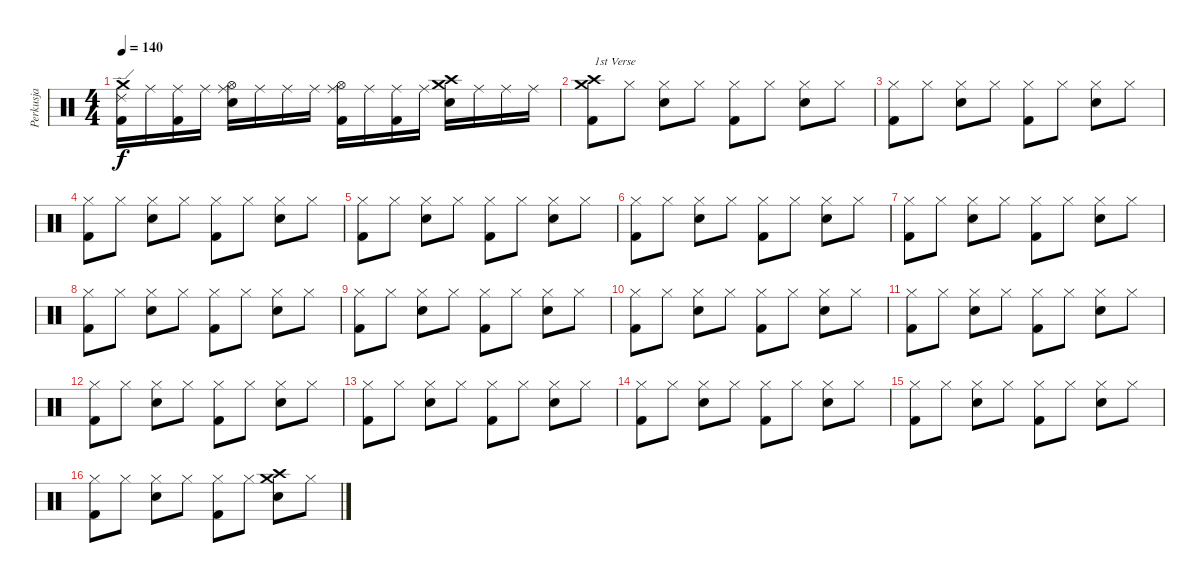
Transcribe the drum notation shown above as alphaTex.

\track ("Perkusja" "Perkusja") {instrument percussion}
\staff {score}
\articulation defaults
\ts (4 4)
\tempo 140
\clef neutral
\ks c
("Crash medium (hit)" "Ride (edge) 2" "Kick (hit) 2").16{dy f} "Ride (middle)".16 ("Ride (middle)" "Kick (hit) 2").16 "Ride (middle)".16 ("Ride (middle)" "Hi-Hat (open)" "Snare (hit) 2").16 "Ride (middle)".16 "Ride (middle)".16 "Ride (middle)".16 ("Ride (middle)" "Hi-Hat (open)" "Kick (hit) 2").16 "Ride (middle)".16 ("Ride (middle)" "Kick (hit) 2").16 "Ride (middle)".16 ("Crash high (hit)" "Crash medium (hit)" "Snare (hit) 2").16 "Ride (middle)".16 "Ride (middle)".16 "Ride (middle)".16 |
("Crash medium (hit)" "Crash high (hit)" "Kick (hit) 2").8{txt "1st Verse"} "Hi-Hat (closed)".8 ("Hi-Hat (closed)" "Snare (hit) 2").8 "Hi-Hat (closed)".8 ("Hi-Hat (closed)" "Kick (hit) 2").8 "Hi-Hat (closed)".8 ("Hi-Hat (closed)" "Snare (hit) 2").8 "Hi-Hat (closed)".8 |
("Hi-Hat (closed)" "Kick (hit) 2").8 "Hi-Hat (closed)".8 ("Hi-Hat (closed)" "Snare (hit) 2").8 "Hi-Hat (closed)".8 ("Hi-Hat (closed)" "Kick (hit) 2").8 "Hi-Hat (closed)".8 ("Hi-Hat (closed)" "Snare (hit) 2").8 "Hi-Hat (closed)".8 |
("Hi-Hat (closed)" "Kick (hit) 2").8 "Hi-Hat (closed)".8 ("Hi-Hat (closed)" "Snare (hit) 2").8 "Hi-Hat (closed)".8 ("Hi-Hat (closed)" "Kick (hit) 2").8 "Hi-Hat (closed)".8 ("Hi-Hat (closed)" "Snare (hit) 2").8 "Hi-Hat (closed)".8 |
("Hi-Hat (closed)" "Kick (hit) 2").8 "Hi-Hat (closed)".8 ("Hi-Hat (closed)" "Snare (hit) 2").8 "Hi-Hat (closed)".8 ("Hi-Hat (closed)" "Kick (hit) 2").8 "Hi-Hat (closed)".8 ("Hi-Hat (closed)" "Snare (hit) 2").8 "Hi-Hat (closed)".8 |
("Hi-Hat (closed)" "Kick (hit) 2").8 "Hi-Hat (closed)".8 ("Hi-Hat (closed)" "Snare (hit) 2").8 "Hi-Hat (closed)".8 ("Hi-Hat (closed)" "Kick (hit) 2").8 "Hi-Hat (closed)".8 ("Hi-Hat (closed)" "Snare (hit) 2").8 "Hi-Hat (closed)".8 |
("Hi-Hat (closed)" "Kick (hit) 2").8 "Hi-Hat (closed)".8 ("Hi-Hat (closed)" "Snare (hit) 2").8 "Hi-Hat (closed)".8 ("Hi-Hat (closed)" "Kick (hit) 2").8 "Hi-Hat (closed)".8 ("Hi-Hat (closed)" "Snare (hit) 2").8 "Hi-Hat (closed)".8 |
("Hi-Hat (closed)" "Kick (hit) 2").8 "Hi-Hat (closed)".8 ("Hi-Hat (closed)" "Snare (hit) 2").8 "Hi-Hat (closed)".8 ("Hi-Hat (closed)" "Kick (hit) 2").8 "Hi-Hat (closed)".8 ("Hi-Hat (closed)" "Snare (hit) 2").8 "Hi-Hat (closed)".8 |
("Hi-Hat (closed)" "Kick (hit) 2").8 "Hi-Hat (closed)".8 ("Hi-Hat (closed)" "Snare (hit) 2").8 "Hi-Hat (closed)".8 ("Hi-Hat (closed)" "Kick (hit) 2").8 "Hi-Hat (closed)".8 ("Hi-Hat (closed)" "Snare (hit) 2").8 "Hi-Hat (closed)".8 |
("Hi-Hat (closed)" "Kick (hit) 2").8 "Hi-Hat (closed)".8 ("Hi-Hat (closed)" "Snare (hit) 2").8 "Hi-Hat (closed)".8 ("Hi-Hat (closed)" "Kick (hit) 2").8 "Hi-Hat (closed)".8 ("Hi-Hat (closed)" "Snare (hit) 2").8 "Hi-Hat (closed)".8 |
("Hi-Hat (closed)" "Kick (hit) 2").8 "Hi-Hat (closed)".8 ("Hi-Hat (closed)" "Snare (hit) 2").8 "Hi-Hat (closed)".8 ("Hi-Hat (closed)" "Kick (hit) 2").8 "Hi-Hat (closed)".8 ("Hi-Hat (closed)" "Snare (hit) 2").8 "Hi-Hat (closed)".8 |
("Hi-Hat (closed)" "Kick (hit) 2").8 "Hi-Hat (closed)".8 ("Hi-Hat (closed)" "Snare (hit) 2").8 "Hi-Hat (closed)".8 ("Hi-Hat (closed)" "Kick (hit) 2").8 "Hi-Hat (closed)".8 ("Hi-Hat (closed)" "Snare (hit) 2").8 "Hi-Hat (closed)".8 |
("Hi-Hat (closed)" "Kick (hit) 2").8 "Hi-Hat (closed)".8 ("Hi-Hat (closed)" "Snare (hit) 2").8 "Hi-Hat (closed)".8 ("Hi-Hat (closed)" "Kick (hit) 2").8 "Hi-Hat (closed)".8 ("Hi-Hat (closed)" "Snare (hit) 2").8 "Hi-Hat (closed)".8 |
("Hi-Hat (closed)" "Kick (hit) 2").8 "Hi-Hat (closed)".8 ("Hi-Hat (closed)" "Snare (hit) 2").8 "Hi-Hat (closed)".8 ("Hi-Hat (closed)" "Kick (hit) 2").8 "Hi-Hat (closed)".8 ("Hi-Hat (closed)" "Snare (hit) 2").8 "Hi-Hat (closed)".8 |
("Hi-Hat (closed)" "Kick (hit) 2").8 "Hi-Hat (closed)".8 ("Hi-Hat (closed)" "Snare (hit) 2").8 "Hi-Hat (closed)".8 ("Hi-Hat (closed)" "Kick (hit) 2").8 "Hi-Hat (closed)".8 ("Hi-Hat (closed)" "Snare (hit) 2").8 "Hi-Hat (closed)".8 |
("Hi-Hat (closed)" "Kick (hit) 2").8 "Hi-Hat (closed)".8 ("Hi-Hat (closed)" "Snare (hit) 2").8 "Hi-Hat (closed)".8 ("Hi-Hat (closed)" "Kick (hit) 2").8 "Hi-Hat (closed)".8 ("Crash medium (hit)" "Crash high (hit)" "Snare (hit) 2").8 "Hi-Hat (closed)".8
